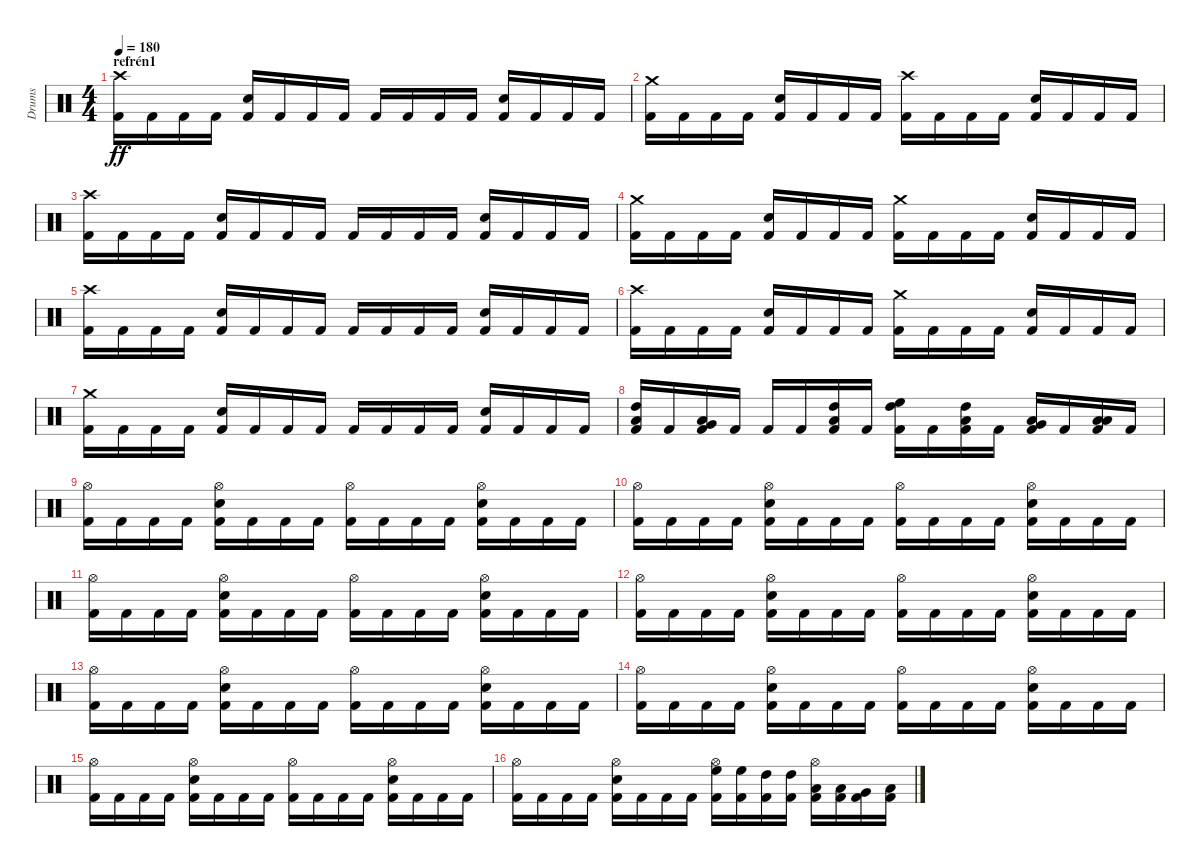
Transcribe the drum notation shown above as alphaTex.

\track ("Drums" "Drums") {instrument percussion}
\staff {score}
\articulation defaults
\ts (4 4)
\section ("" "refrén1")
\tempo 180
\clef neutral
\ks c
("Crash high (hit)" "Kick (hit) 2").16{dy ff} "Kick (hit) 2".16 "Kick (hit) 2".16 "Kick (hit) 2".16 ("Snare (hit) 2" "Kick (hit) 2").16 "Kick (hit) 2".16 "Kick (hit) 2".16 "Kick (hit) 2".16 "Kick (hit) 2".16 "Kick (hit) 2".16 "Kick (hit) 2".16 "Kick (hit) 2".16 ("Snare (hit) 2" "Kick (hit) 2").16 "Kick (hit) 2".16 "Kick (hit) 2".16 "Kick (hit) 2".16 |
("Crash medium (hit)" "Kick (hit) 2").16 "Kick (hit) 2".16 "Kick (hit) 2".16 "Kick (hit) 2".16 ("Snare (hit) 2" "Kick (hit) 2").16 "Kick (hit) 2".16 "Kick (hit) 2".16 "Kick (hit) 2".16 ("Crash high (hit)" "Kick (hit) 2").16 "Kick (hit) 2".16 "Kick (hit) 2".16 "Kick (hit) 2".16 ("Snare (hit) 2" "Kick (hit) 2").16 "Kick (hit) 2".16 "Kick (hit) 2".16 "Kick (hit) 2".16 |
("Crash high (hit)" "Kick (hit) 2").16 "Kick (hit) 2".16 "Kick (hit) 2".16 "Kick (hit) 2".16 ("Snare (hit) 2" "Kick (hit) 2").16 "Kick (hit) 2".16 "Kick (hit) 2".16 "Kick (hit) 2".16 "Kick (hit) 2".16 "Kick (hit) 2".16 "Kick (hit) 2".16 "Kick (hit) 2".16 ("Snare (hit) 2" "Kick (hit) 2").16 "Kick (hit) 2".16 "Kick (hit) 2".16 "Kick (hit) 2".16 |
("Crash medium (hit)" "Kick (hit) 2").16 "Kick (hit) 2".16 "Kick (hit) 2".16 "Kick (hit) 2".16 ("Snare (hit) 2" "Kick (hit) 2").16 "Kick (hit) 2".16 "Kick (hit) 2".16 "Kick (hit) 2".16 ("Crash medium (hit)" "Kick (hit) 2").16 "Kick (hit) 2".16 "Kick (hit) 2".16 "Kick (hit) 2".16 ("Snare (hit) 2" "Kick (hit) 2").16 "Kick (hit) 2".16 "Kick (hit) 2".16 "Kick (hit) 2".16 |
("Crash high (hit)" "Kick (hit) 2").16 "Kick (hit) 2".16 "Kick (hit) 2".16 "Kick (hit) 2".16 ("Snare (hit) 2" "Kick (hit) 2").16 "Kick (hit) 2".16 "Kick (hit) 2".16 "Kick (hit) 2".16 "Kick (hit) 2".16 "Kick (hit) 2".16 "Kick (hit) 2".16 "Kick (hit) 2".16 ("Snare (hit) 2" "Kick (hit) 2").16 "Kick (hit) 2".16 "Kick (hit) 2".16 "Kick (hit) 2".16 |
("Crash high (hit)" "Kick (hit) 2").16 "Kick (hit) 2".16 "Kick (hit) 2".16 "Kick (hit) 2".16 ("Snare (hit) 2" "Kick (hit) 2").16 "Kick (hit) 2".16 "Kick (hit) 2".16 "Kick (hit) 2".16 ("Crash medium (hit)" "Kick (hit) 2").16 "Kick (hit) 2".16 "Kick (hit) 2".16 "Kick (hit) 2".16 ("Snare (hit) 2" "Kick (hit) 2").16 "Kick (hit) 2".16 "Kick (hit) 2".16 "Kick (hit) 2".16 |
("Crash medium (hit)" "Kick (hit) 2").16 "Kick (hit) 2".16 "Kick (hit) 2".16 "Kick (hit) 2".16 ("Snare (hit) 2" "Kick (hit) 2").16 "Kick (hit) 2".16 "Kick (hit) 2".16 "Kick (hit) 2".16 "Kick (hit) 2".16 "Kick (hit) 2".16 "Kick (hit) 2".16 "Kick (hit) 2".16 ("Snare (hit) 2" "Kick (hit) 2").16 "Kick (hit) 2".16 "Kick (hit) 2".16 "Kick (hit) 2".16 |
("High Tom (hit)" "Low Tom (hit)" "Kick (hit) 2").16 "Kick (hit) 2".16 ("Low Tom (hit)" "Very Low Tom (hit)" "Kick (hit) 2").16 "Kick (hit) 2".16 "Kick (hit) 2".16 "Kick (hit) 2".16 ("High Tom (hit)" "Low Tom (hit)" "Kick (hit) 2").16 "Kick (hit) 2".16 ("High Floor Tom (hit)" "High Tom (hit)" "Kick (hit) 2").16 "Kick (hit) 2".16 ("High Tom (hit)" "Low Tom (hit)" "Kick (hit) 2").16 "Kick (hit) 2".16 ("Very Low Tom (hit)" "Low Floor Tom (hit)" "Kick (hit) 2").16 "Kick (hit) 2".16 ("Low Floor Tom (hit)" "Low Floor Tom (hit)" "Kick (hit) 2").16 "Kick (hit) 2".16 |
("Hi-Hat (open)" "Kick (hit) 2").16 "Kick (hit) 2".16 "Kick (hit) 2".16 "Kick (hit) 2".16 ("Hi-Hat (open)" "Snare (hit) 2" "Kick (hit) 2").16 "Kick (hit) 2".16 "Kick (hit) 2".16 "Kick (hit) 2".16 ("Hi-Hat (open)" "Kick (hit) 2").16 "Kick (hit) 2".16 "Kick (hit) 2".16 "Kick (hit) 2".16 ("Hi-Hat (open)" "Snare (hit) 2" "Kick (hit) 2").16 "Kick (hit) 2".16 "Kick (hit) 2".16 "Kick (hit) 2".16 |
("Hi-Hat (open)" "Kick (hit) 2").16 "Kick (hit) 2".16 "Kick (hit) 2".16 "Kick (hit) 2".16 ("Hi-Hat (open)" "Snare (hit) 2" "Kick (hit) 2").16 "Kick (hit) 2".16 "Kick (hit) 2".16 "Kick (hit) 2".16 ("Hi-Hat (open)" "Kick (hit) 2").16 "Kick (hit) 2".16 "Kick (hit) 2".16 "Kick (hit) 2".16 ("Hi-Hat (open)" "Snare (hit) 2" "Kick (hit) 2").16 "Kick (hit) 2".16 "Kick (hit) 2".16 "Kick (hit) 2".16 |
("Hi-Hat (open)" "Kick (hit) 2").16 "Kick (hit) 2".16 "Kick (hit) 2".16 "Kick (hit) 2".16 ("Hi-Hat (open)" "Snare (hit) 2" "Kick (hit) 2").16 "Kick (hit) 2".16 "Kick (hit) 2".16 "Kick (hit) 2".16 ("Hi-Hat (open)" "Kick (hit) 2").16 "Kick (hit) 2".16 "Kick (hit) 2".16 "Kick (hit) 2".16 ("Hi-Hat (open)" "Snare (hit) 2" "Kick (hit) 2").16 "Kick (hit) 2".16 "Kick (hit) 2".16 "Kick (hit) 2".16 |
("Hi-Hat (open)" "Kick (hit) 2").16 "Kick (hit) 2".16 "Kick (hit) 2".16 "Kick (hit) 2".16 ("Hi-Hat (open)" "Snare (hit) 2" "Kick (hit) 2").16 "Kick (hit) 2".16 "Kick (hit) 2".16 "Kick (hit) 2".16 ("Hi-Hat (open)" "Kick (hit) 2").16 "Kick (hit) 2".16 "Kick (hit) 2".16 "Kick (hit) 2".16 ("Hi-Hat (open)" "Snare (hit) 2" "Kick (hit) 2").16 "Kick (hit) 2".16 "Kick (hit) 2".16 "Kick (hit) 2".16 |
("Hi-Hat (open)" "Kick (hit) 2").16 "Kick (hit) 2".16 "Kick (hit) 2".16 "Kick (hit) 2".16 ("Hi-Hat (open)" "Snare (hit) 2" "Kick (hit) 2").16 "Kick (hit) 2".16 "Kick (hit) 2".16 "Kick (hit) 2".16 ("Hi-Hat (open)" "Kick (hit) 2").16 "Kick (hit) 2".16 "Kick (hit) 2".16 "Kick (hit) 2".16 ("Hi-Hat (open)" "Snare (hit) 2" "Kick (hit) 2").16 "Kick (hit) 2".16 "Kick (hit) 2".16 "Kick (hit) 2".16 |
("Hi-Hat (open)" "Kick (hit) 2").16 "Kick (hit) 2".16 "Kick (hit) 2".16 "Kick (hit) 2".16 ("Hi-Hat (open)" "Snare (hit) 2" "Kick (hit) 2").16 "Kick (hit) 2".16 "Kick (hit) 2".16 "Kick (hit) 2".16 ("Hi-Hat (open)" "Kick (hit) 2").16 "Kick (hit) 2".16 "Kick (hit) 2".16 "Kick (hit) 2".16 ("Hi-Hat (open)" "Snare (hit) 2" "Kick (hit) 2").16 "Kick (hit) 2".16 "Kick (hit) 2".16 "Kick (hit) 2".16 |
("Hi-Hat (open)" "Kick (hit) 2").16 "Kick (hit) 2".16 "Kick (hit) 2".16 "Kick (hit) 2".16 ("Hi-Hat (open)" "Snare (hit) 2" "Kick (hit) 2").16 "Kick (hit) 2".16 "Kick (hit) 2".16 "Kick (hit) 2".16 ("Hi-Hat (open)" "Kick (hit) 2").16 "Kick (hit) 2".16 "Kick (hit) 2".16 "Kick (hit) 2".16 ("Hi-Hat (open)" "Snare (hit) 2" "Kick (hit) 2").16 "Kick (hit) 2".16 "Kick (hit) 2".16 "Kick (hit) 2".16 |
("Hi-Hat (open)" "Kick (hit) 2").16 "Kick (hit) 2".16 "Kick (hit) 2".16 "Kick (hit) 2".16 ("Hi-Hat (open)" "Snare (hit) 2" "Kick (hit) 2").16 "Kick (hit) 2".16 "Kick (hit) 2".16 "Kick (hit) 2".16 ("Hi-Hat (open)" "High Floor Tom (hit)" "Kick (hit) 2").16 ("High Floor Tom (hit)" "Kick (hit) 2").16 ("High Tom (hit)" "Kick (hit) 2").16 ("High Tom (hit)" "Kick (hit) 2").16 ("Hi-Hat (open)" "Low Tom (hit)" "Kick (hit) 2").16 ("Low Tom (hit)" "Kick (hit) 2").16 ("Very Low Tom (hit)" "Kick (hit) 2").16 ("Low Floor Tom (hit)" "Kick (hit) 2").16
